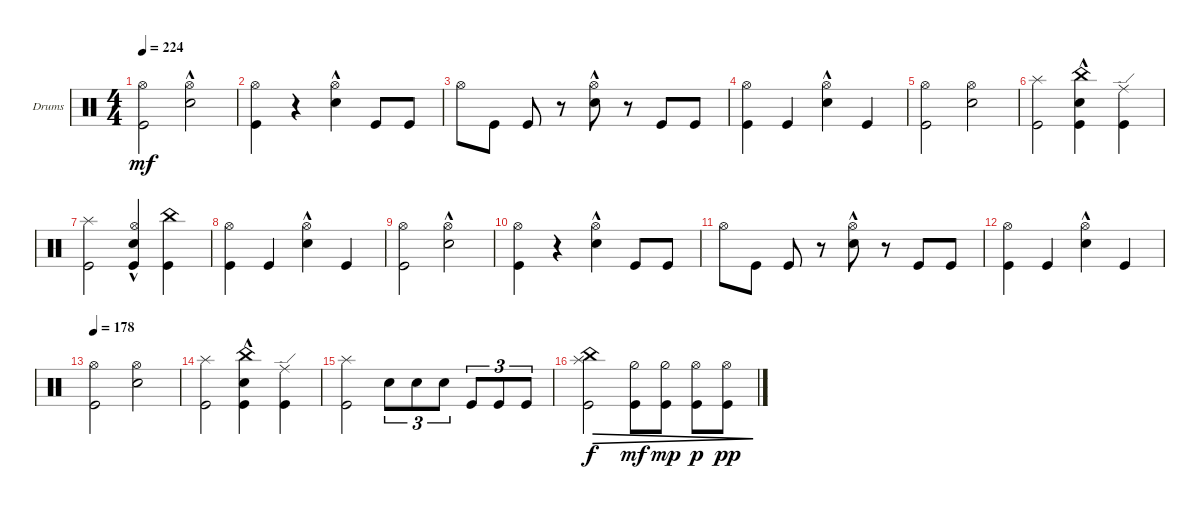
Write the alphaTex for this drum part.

\defaultSystemsLayout 4
\bracketExtendMode groupsimilarinstruments
\firstSystemTrackNameOrientation horizontal
\otherSystemsTrackNameOrientation horizontal
\track ("Drumkit" "Drums") {instrument percussion}
\staff {score}
\articulation defaults
\ts (4 4)
\tempo 224
\clef neutral
\scale
0.333333
\ks c
("Kick (hit)" "Hi-Hat (open)").2{dy mf} ("Snare (hit) 2"{hac} "Hi-Hat (open)").2 |
\scale
0.333333 ("Kick (hit)" "Hi-Hat (open)").4 r.4 ("Snare (hit) 2"{hac} "Hi-Hat (open)").4 "Kick (hit)".8 "Kick (hit)".8 |
\scale
0.333333 "Hi-Hat (open)".8 "Kick (hit)".8 "Kick (hit)".8 r.8 ("Snare (hit) 2"{hac} "Hi-Hat (open)").8 r.8 "Kick (hit)".8 "Kick (hit)".8 |
\scale
0.333333 ("Kick (hit)" "Hi-Hat (open)").4 "Kick (hit)".4 ("Snare (hit) 2"{hac} "Hi-Hat (open)").4 "Kick (hit)".4 |
\scale
0.333333 ("Kick (hit)" "Hi-Hat (open)").2 ("Snare (hit) 2" "Hi-Hat (open)").2 |
\scale
0.333333 ("Splash (hit)" "Kick (hit)").2 ("Kick (hit)" "Snare (hit) 2"{hac} "China (hit)").4 ("Kick (hit)" "Ride (edge)").4 |
\scale
0.333333 ("Kick (hit)" "Splash (hit)").2 ("Kick (hit)" "Hi-Hat (open)" "Snare (hit) 2"{hac}).4 ("Kick (hit)" "China (hit)").4 |
\scale
0.333333 ("Kick (hit)" "Hi-Hat (open)").4 "Kick (hit)".4 ("Snare (hit) 2"{hac} "Hi-Hat (open)").4 "Kick (hit)".4 |
\scale
0.333333 ("Kick (hit)" "Hi-Hat (open)").2 ("Snare (hit) 2"{hac} "Hi-Hat (open)").2 |
\scale
0.333333 ("Kick (hit)" "Hi-Hat (open)").4 r.4 ("Snare (hit) 2"{hac} "Hi-Hat (open)").4 "Kick (hit)".8 "Kick (hit)".8 |
\scale
0.333333 "Hi-Hat (open)".8 "Kick (hit)".8 "Kick (hit)".8 r.8 ("Snare (hit) 2"{hac} "Hi-Hat (open)").8 r.8 "Kick (hit)".8 "Kick (hit)".8 |
\scale
0.333333 ("Kick (hit)" "Hi-Hat (open)").4 "Kick (hit)".4 ("Snare (hit) 2"{hac} "Hi-Hat (open)").4 "Kick (hit)".4 |
\tempo 178
\scale
0.333333 ("Kick (hit)" "Hi-Hat (open)").2 ("Snare (hit) 2" "Hi-Hat (open)").2 |
\scale
0.333333 ("Splash (hit)" "Kick (hit)").2 ("Kick (hit)" "Snare (hit) 2"{hac} "China (hit)").4 ("Kick (hit)" "Ride (edge)").4 |
\scale
0.333333 ("Kick (hit)" "Splash (hit)").2 "Snare (hit) 2".8{tu (3 2)} "Snare (hit) 2".8{tu (3 2)} "Snare (hit) 2".8{tu (3 2)} "Kick (hit)".8{tu (3 2)} "Kick (hit)".8{tu (3 2)} "Kick (hit)".8{tu (3 2)} |
\scale
0.333333 ("Splash (hit)" "China (hit)" "Kick (hit)").2{dec dy f} ("Hi-Hat (half)" "Kick (hit)").8{dec dy mf} ("Hi-Hat (half)" "Kick (hit)").8{dec dy mp} ("Hi-Hat (open)" "Kick (hit)").8{dec dy p} ("Hi-Hat (open)" "Kick (hit)").8{dec dy pp}
